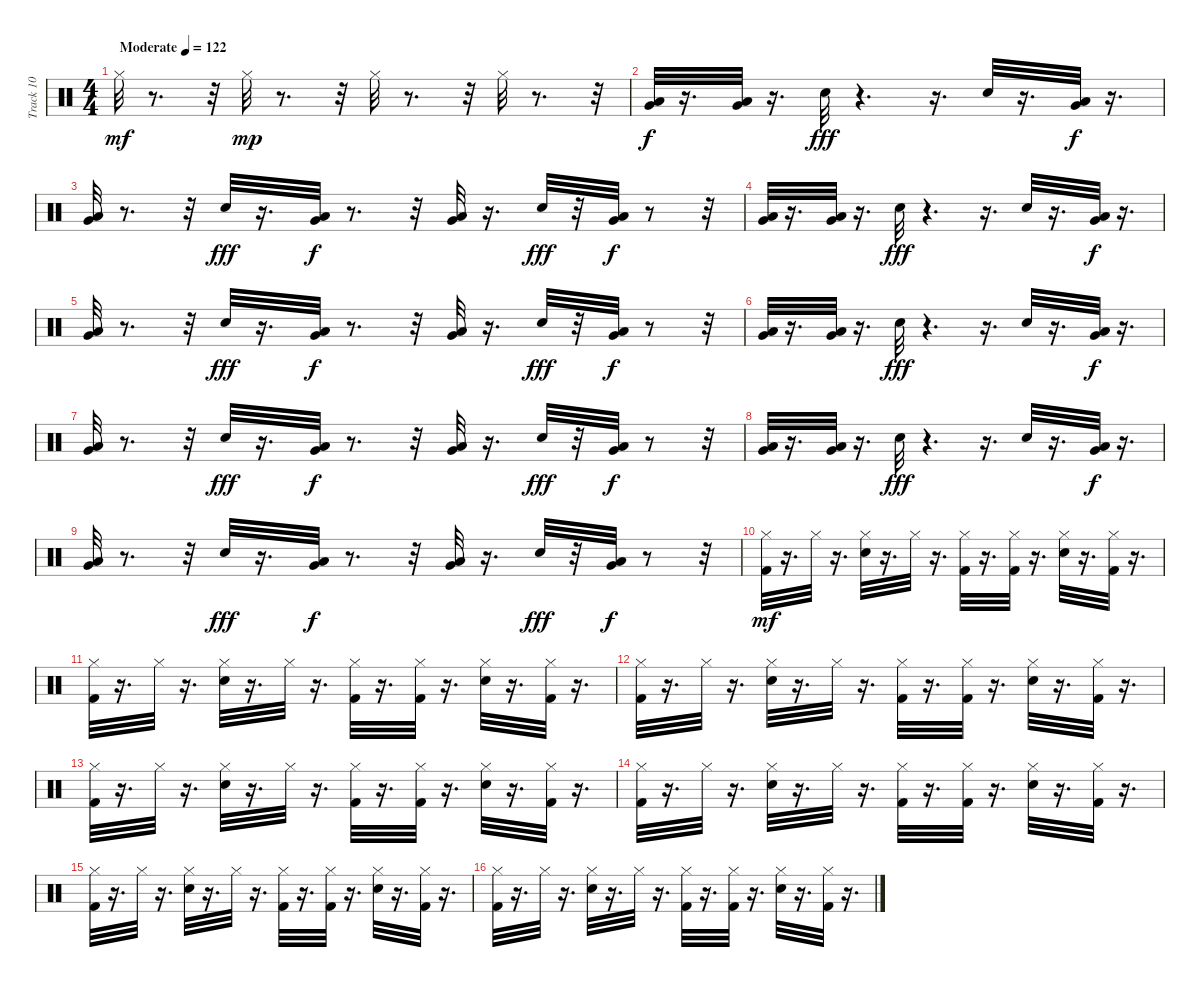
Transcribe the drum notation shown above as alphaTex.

\track ("Track 10" "Track 10") {instrument percussion}
\staff {score}
\articulation defaults
\ts (4 4)
\tempo (122 "Moderate")
\clef neutral
\ks c "Hi-Hat (closed)".32{dy mf}
r.8{d} r.32 "Hi-Hat (closed)".32{dy mp} r.8{d} r.32 "Hi-Hat (closed)".32 r.8{d} r.32 "Hi-Hat (closed)".32 r.8{d} r.32 |
("Low Floor Tom (hit)" "Very Low Tom (hit)").32{dy f} r.16{d} ("Low Floor Tom (hit)" "Very Low Tom (hit)").32 r.16{d} "Hand Clap (hit)".32{dy fff} r.4{d} r.16{d} "Hand Clap (hit)".32 r.16{d} ("Low Floor Tom (hit)" "Very Low Tom (hit)").32{dy f} r.16{d} |
("Low Floor Tom (hit)" "Very Low Tom (hit)").32 r.8{d} r.32 "Hand Clap (hit)".32{dy fff} r.16{d} ("Low Floor Tom (hit)" "Very Low Tom (hit)").32{dy f} r.8{d} r.32 ("Low Floor Tom (hit)" "Very Low Tom (hit)").32 r.16{d} "Hand Clap (hit)".32{dy fff} r.32 ("Low Floor Tom (hit)" "Very Low Tom (hit)").32{dy f} r.8 r.32 |
("Low Floor Tom (hit)" "Very Low Tom (hit)").32 r.16{d} ("Low Floor Tom (hit)" "Very Low Tom (hit)").32 r.16{d} "Hand Clap (hit)".32{dy fff} r.4{d} r.16{d} "Hand Clap (hit)".32 r.16{d} ("Low Floor Tom (hit)" "Very Low Tom (hit)").32{dy f} r.16{d} |
("Low Floor Tom (hit)" "Very Low Tom (hit)").32 r.8{d} r.32 "Hand Clap (hit)".32{dy fff} r.16{d} ("Low Floor Tom (hit)" "Very Low Tom (hit)").32{dy f} r.8{d} r.32 ("Low Floor Tom (hit)" "Very Low Tom (hit)").32 r.16{d} "Hand Clap (hit)".32{dy fff} r.32 ("Low Floor Tom (hit)" "Very Low Tom (hit)").32{dy f} r.8 r.32 |
("Low Floor Tom (hit)" "Very Low Tom (hit)").32 r.16{d} ("Low Floor Tom (hit)" "Very Low Tom (hit)").32 r.16{d} "Hand Clap (hit)".32{dy fff} r.4{d} r.16{d} "Hand Clap (hit)".32 r.16{d} ("Low Floor Tom (hit)" "Very Low Tom (hit)").32{dy f} r.16{d} |
("Low Floor Tom (hit)" "Very Low Tom (hit)").32 r.8{d} r.32 "Hand Clap (hit)".32{dy fff} r.16{d} ("Low Floor Tom (hit)" "Very Low Tom (hit)").32{dy f} r.8{d} r.32 ("Low Floor Tom (hit)" "Very Low Tom (hit)").32 r.16{d} "Hand Clap (hit)".32{dy fff} r.32 ("Low Floor Tom (hit)" "Very Low Tom (hit)").32{dy f} r.8 r.32 |
("Low Floor Tom (hit)" "Very Low Tom (hit)").32 r.16{d} ("Low Floor Tom (hit)" "Very Low Tom (hit)").32 r.16{d} "Hand Clap (hit)".32{dy fff} r.4{d} r.16{d} "Hand Clap (hit)".32 r.16{d} ("Low Floor Tom (hit)" "Very Low Tom (hit)").32{dy f} r.16{d} |
("Low Floor Tom (hit)" "Very Low Tom (hit)").32 r.8{d} r.32 "Hand Clap (hit)".32{dy fff} r.16{d} ("Low Floor Tom (hit)" "Very Low Tom (hit)").32{dy f} r.8{d} r.32 ("Low Floor Tom (hit)" "Very Low Tom (hit)").32 r.16{d} "Electric Snare (hit)".32{dy fff} r.32 ("Low Floor Tom (hit)" "Very Low Tom (hit)").32{dy f} r.8 r.32 |
("Kick (hit) 2" "Hi-Hat (closed)").32{dy mf} r.16{d} "Hi-Hat (closed)".32 r.16{d} ("Electric Snare (hit)" "Hi-Hat (closed)").32 r.16{d} "Hi-Hat (closed)".32 r.16{d} ("Kick (hit) 2" "Hi-Hat (closed)").32 r.16{d} ("Kick (hit) 2" "Hi-Hat (closed)").32 r.16{d} ("Electric Snare (hit)" "Hi-Hat (closed)").32 r.16{d} ("Kick (hit) 2" "Hi-Hat (closed)").32 r.16{d} |
("Kick (hit) 2" "Hi-Hat (closed)").32 r.16{d} "Hi-Hat (closed)".32 r.16{d} ("Electric Snare (hit)" "Hi-Hat (closed)").32 r.16{d} "Hi-Hat (closed)".32 r.16{d} ("Kick (hit) 2" "Hi-Hat (closed)").32 r.16{d} ("Kick (hit) 2" "Hi-Hat (closed)").32 r.16{d} ("Electric Snare (hit)" "Hi-Hat (closed)").32 r.16{d} ("Kick (hit) 2" "Hi-Hat (closed)").32 r.16{d} |
("Kick (hit) 2" "Hi-Hat (closed)").32 r.16{d} "Hi-Hat (closed)".32 r.16{d} ("Electric Snare (hit)" "Hi-Hat (closed)").32 r.16{d} "Hi-Hat (closed)".32 r.16{d} ("Kick (hit) 2" "Hi-Hat (closed)").32 r.16{d} ("Kick (hit) 2" "Hi-Hat (closed)").32 r.16{d} ("Electric Snare (hit)" "Hi-Hat (closed)").32 r.16{d} ("Kick (hit) 2" "Hi-Hat (closed)").32 r.16{d} |
("Kick (hit) 2" "Hi-Hat (closed)").32 r.16{d} "Hi-Hat (closed)".32 r.16{d} ("Electric Snare (hit)" "Hi-Hat (closed)").32 r.16{d} "Hi-Hat (closed)".32 r.16{d} ("Kick (hit) 2" "Hi-Hat (closed)").32 r.16{d} ("Kick (hit) 2" "Hi-Hat (closed)").32 r.16{d} ("Electric Snare (hit)" "Hi-Hat (closed)").32 r.16{d} ("Kick (hit) 2" "Hi-Hat (closed)").32 r.16{d} |
("Kick (hit) 2" "Hi-Hat (closed)").32 r.16{d} "Hi-Hat (closed)".32 r.16{d} ("Electric Snare (hit)" "Hi-Hat (closed)").32 r.16{d} "Hi-Hat (closed)".32 r.16{d} ("Kick (hit) 2" "Hi-Hat (closed)").32 r.16{d} ("Kick (hit) 2" "Hi-Hat (closed)").32 r.16{d} ("Electric Snare (hit)" "Hi-Hat (closed)").32 r.16{d} ("Kick (hit) 2" "Hi-Hat (closed)").32 r.16{d} |
("Kick (hit) 2" "Hi-Hat (closed)").32 r.16{d} "Hi-Hat (closed)".32 r.16{d} ("Electric Snare (hit)" "Hi-Hat (closed)").32 r.16{d} "Hi-Hat (closed)".32 r.16{d} ("Kick (hit) 2" "Hi-Hat (closed)").32 r.16{d} ("Kick (hit) 2" "Hi-Hat (closed)").32 r.16{d} ("Electric Snare (hit)" "Hi-Hat (closed)").32 r.16{d} ("Kick (hit) 2" "Hi-Hat (closed)").32 r.16{d} |
("Kick (hit) 2" "Hi-Hat (closed)").32 r.16{d} "Hi-Hat (closed)".32 r.16{d} ("Electric Snare (hit)" "Hi-Hat (closed)").32 r.16{d} "Hi-Hat (closed)".32 r.16{d} ("Kick (hit) 2" "Hi-Hat (closed)").32 r.16{d} ("Kick (hit) 2" "Hi-Hat (closed)").32 r.16{d} ("Electric Snare (hit)" "Hi-Hat (closed)").32 r.16{d} ("Kick (hit) 2" "Hi-Hat (closed)").32 r.16{d}
